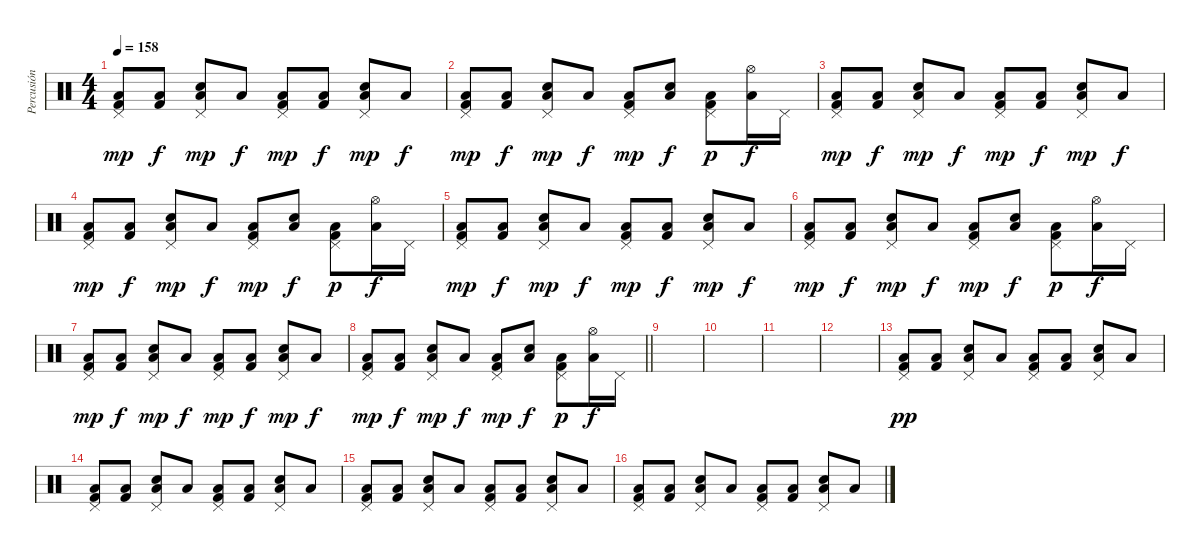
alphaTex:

\track ("Percusión" "Percusión") {instrument percussion}
\staff {score}
\articulation defaults
\ts (4 4)
\tempo 158
\clef neutral
\ks c
("Pedal Hi-Hat (hit)" "Low Floor Tom (hit)" "Kick (hit) 2").8{dy mp} ("Low Floor Tom (hit)" "Kick (hit) 2").8{dy f} ("Pedal Hi-Hat (hit)" "Low Floor Tom (hit)" "Electric Snare (hit)").8{dy mp} "Low Floor Tom (hit)".8{dy f} ("Pedal Hi-Hat (hit)" "Low Floor Tom (hit)" "Kick (hit) 2").8{dy mp} ("Low Floor Tom (hit)" "Kick (hit) 2").8{dy f} ("Pedal Hi-Hat (hit)" "Low Floor Tom (hit)" "Electric Snare (hit)").8{dy mp} "Low Floor Tom (hit)".8{dy f} |
("Pedal Hi-Hat (hit)" "Low Floor Tom (hit)" "Kick (hit) 2").8{dy mp} ("Low Floor Tom (hit)" "Kick (hit) 2").8{dy f} ("Pedal Hi-Hat (hit)" "Low Floor Tom (hit)" "Electric Snare (hit)").8{dy mp} "Low Floor Tom (hit)".8{dy f} ("Pedal Hi-Hat (hit)" "Low Floor Tom (hit)" "Kick (hit) 2").8{dy mp} ("Low Floor Tom (hit)" "Electric Snare (hit)").8{dy f} ("Pedal Hi-Hat (hit)" "Low Floor Tom (hit)" "Kick (hit) 2").8{dy p} ("Hi-Hat (open)" "Low Floor Tom (hit)").16{dy f} "Pedal Hi-Hat (hit)".16 |
("Pedal Hi-Hat (hit)" "Low Floor Tom (hit)" "Kick (hit) 2").8{dy mp} ("Low Floor Tom (hit)" "Kick (hit) 2").8{dy f} ("Pedal Hi-Hat (hit)" "Low Floor Tom (hit)" "Electric Snare (hit)").8{dy mp} "Low Floor Tom (hit)".8{dy f} ("Pedal Hi-Hat (hit)" "Low Floor Tom (hit)" "Kick (hit) 2").8{dy mp} ("Low Floor Tom (hit)" "Kick (hit) 2").8{dy f} ("Pedal Hi-Hat (hit)" "Low Floor Tom (hit)" "Electric Snare (hit)").8{dy mp} "Low Floor Tom (hit)".8{dy f} |
("Pedal Hi-Hat (hit)" "Low Floor Tom (hit)" "Kick (hit) 2").8{dy mp} ("Low Floor Tom (hit)" "Kick (hit) 2").8{dy f} ("Pedal Hi-Hat (hit)" "Low Floor Tom (hit)" "Electric Snare (hit)").8{dy mp} "Low Floor Tom (hit)".8{dy f} ("Pedal Hi-Hat (hit)" "Low Floor Tom (hit)" "Kick (hit) 2").8{dy mp} ("Low Floor Tom (hit)" "Electric Snare (hit)").8{dy f} ("Pedal Hi-Hat (hit)" "Low Floor Tom (hit)" "Kick (hit) 2").8{dy p} ("Hi-Hat (open)" "Low Floor Tom (hit)").16{dy f} "Pedal Hi-Hat (hit)".16 |
("Pedal Hi-Hat (hit)" "Low Floor Tom (hit)" "Kick (hit) 2").8{dy mp} ("Low Floor Tom (hit)" "Kick (hit) 2").8{dy f} ("Pedal Hi-Hat (hit)" "Low Floor Tom (hit)" "Electric Snare (hit)").8{dy mp} "Low Floor Tom (hit)".8{dy f} ("Pedal Hi-Hat (hit)" "Low Floor Tom (hit)" "Kick (hit) 2").8{dy mp} ("Low Floor Tom (hit)" "Kick (hit) 2").8{dy f} ("Pedal Hi-Hat (hit)" "Low Floor Tom (hit)" "Electric Snare (hit)").8{dy mp} "Low Floor Tom (hit)".8{dy f} |
("Pedal Hi-Hat (hit)" "Low Floor Tom (hit)" "Kick (hit) 2").8{dy mp} ("Low Floor Tom (hit)" "Kick (hit) 2").8{dy f} ("Pedal Hi-Hat (hit)" "Low Floor Tom (hit)" "Electric Snare (hit)").8{dy mp} "Low Floor Tom (hit)".8{dy f} ("Pedal Hi-Hat (hit)" "Low Floor Tom (hit)" "Kick (hit) 2").8{dy mp} ("Low Floor Tom (hit)" "Electric Snare (hit)").8{dy f} ("Pedal Hi-Hat (hit)" "Low Floor Tom (hit)" "Kick (hit) 2").8{dy p} ("Hi-Hat (open)" "Low Floor Tom (hit)").16{dy f} "Pedal Hi-Hat (hit)".16 |
("Pedal Hi-Hat (hit)" "Low Floor Tom (hit)" "Kick (hit) 2").8{dy mp} ("Low Floor Tom (hit)" "Kick (hit) 2").8{dy f} ("Pedal Hi-Hat (hit)" "Low Floor Tom (hit)" "Electric Snare (hit)").8{dy mp} "Low Floor Tom (hit)".8{dy f} ("Pedal Hi-Hat (hit)" "Low Floor Tom (hit)" "Kick (hit) 2").8{dy mp} ("Low Floor Tom (hit)" "Kick (hit) 2").8{dy f} ("Pedal Hi-Hat (hit)" "Low Floor Tom (hit)" "Electric Snare (hit)").8{dy mp} "Low Floor Tom (hit)".8{dy f} |
\barLineRight lightlight
("Pedal Hi-Hat (hit)" "Low Floor Tom (hit)" "Kick (hit) 2").8{dy mp} ("Low Floor Tom (hit)" "Kick (hit) 2").8{dy f} ("Pedal Hi-Hat (hit)" "Low Floor Tom (hit)" "Electric Snare (hit)").8{dy mp} "Low Floor Tom (hit)".8{dy f} ("Pedal Hi-Hat (hit)" "Low Floor Tom (hit)" "Kick (hit) 2").8{dy mp} ("Low Floor Tom (hit)" "Electric Snare (hit)").8{dy f} ("Pedal Hi-Hat (hit)" "Low Floor Tom (hit)" "Kick (hit) 2").8{dy p} ("Hi-Hat (open)" "Low Floor Tom (hit)").16{dy f} "Pedal Hi-Hat (hit)".16 |
|
|
|
|
("Pedal Hi-Hat (hit)" "Low Floor Tom (hit)" "Kick (hit) 2").8{dy pp} ("Low Floor Tom (hit)" "Kick (hit) 2").8 ("Pedal Hi-Hat (hit)" "Low Floor Tom (hit)" "Electric Snare (hit)").8 "Low Floor Tom (hit)".8 ("Pedal Hi-Hat (hit)" "Low Floor Tom (hit)" "Kick (hit) 2").8 ("Low Floor Tom (hit)" "Kick (hit) 2").8 ("Pedal Hi-Hat (hit)" "Low Floor Tom (hit)" "Electric Snare (hit)").8 "Low Floor Tom (hit)".8 |
("Pedal Hi-Hat (hit)" "Low Floor Tom (hit)" "Kick (hit) 2").8 ("Low Floor Tom (hit)" "Kick (hit) 2").8 ("Pedal Hi-Hat (hit)" "Low Floor Tom (hit)" "Electric Snare (hit)").8 "Low Floor Tom (hit)".8 ("Pedal Hi-Hat (hit)" "Low Floor Tom (hit)" "Kick (hit) 2").8 ("Low Floor Tom (hit)" "Kick (hit) 2").8 ("Pedal Hi-Hat (hit)" "Low Floor Tom (hit)" "Electric Snare (hit)").8 "Low Floor Tom (hit)".8 |
("Pedal Hi-Hat (hit)" "Low Floor Tom (hit)" "Kick (hit) 2").8 ("Low Floor Tom (hit)" "Kick (hit) 2").8 ("Pedal Hi-Hat (hit)" "Low Floor Tom (hit)" "Electric Snare (hit)").8 "Low Floor Tom (hit)".8 ("Pedal Hi-Hat (hit)" "Low Floor Tom (hit)" "Kick (hit) 2").8 ("Low Floor Tom (hit)" "Kick (hit) 2").8 ("Pedal Hi-Hat (hit)" "Low Floor Tom (hit)" "Electric Snare (hit)").8 "Low Floor Tom (hit)".8 |
("Pedal Hi-Hat (hit)" "Low Floor Tom (hit)" "Kick (hit) 2").8 ("Low Floor Tom (hit)" "Kick (hit) 2").8 ("Pedal Hi-Hat (hit)" "Low Floor Tom (hit)" "Electric Snare (hit)").8 "Low Floor Tom (hit)".8 ("Pedal Hi-Hat (hit)" "Low Floor Tom (hit)" "Kick (hit) 2").8 ("Low Floor Tom (hit)" "Kick (hit) 2").8 ("Pedal Hi-Hat (hit)" "Low Floor Tom (hit)" "Electric Snare (hit)").8 "Low Floor Tom (hit)".8
